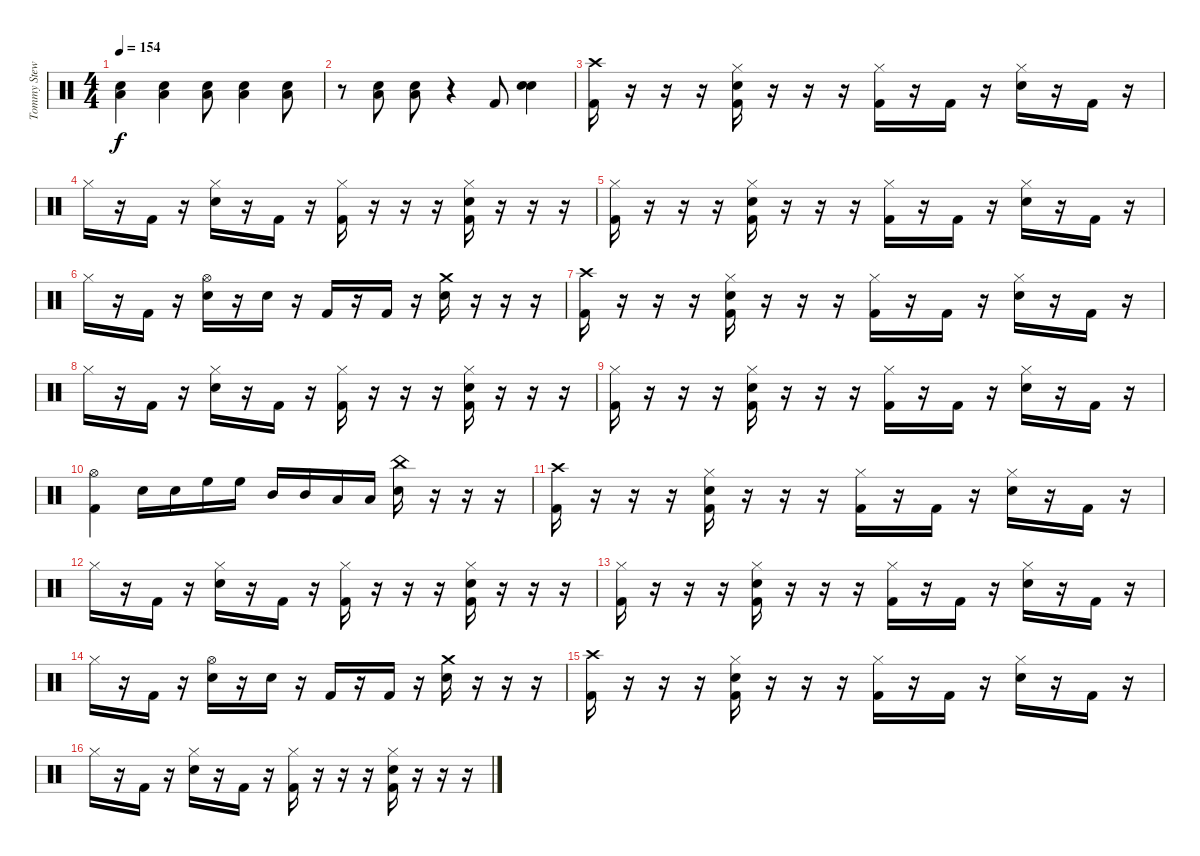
\track ("Tommy Stewart" "Tommy Stew") {instrument percussion}
\staff {score}
\articulation defaults
\ts (4 4)
\tempo 154
\clef neutral
\ks c
("Snare (hit) 2" "Low Tom (hit)").4{dy f} ("Snare (hit) 2" "Low Tom (hit)").4 ("Snare (hit) 2" "Low Tom (hit)").8 ("Snare (hit) 2" "Low Tom (hit)").4 ("Snare (hit) 2" "Low Tom (hit)").8 |
r.8 ("Snare (hit) 2" "Low Tom (hit)").8 ("Snare (hit) 2" "Low Tom (hit)").8 r.4 "Kick (hit) 2".8 ("Snare (hit) 2" "Snare (hit) 2").4 |
("Crash high (hit)" "Kick (hit) 2").16 r.16 r.16 r.16 ("Hi-Hat (closed)" "Snare (hit) 2" "Kick (hit) 2").16 r.16 r.16 r.16 ("Hi-Hat (closed)" "Kick (hit) 2").16 r.16 "Kick (hit) 2".16 r.16 ("Hi-Hat (closed)" "Snare (hit) 2").16 r.16 "Kick (hit) 2".16 r.16 |
"Hi-Hat (closed)".16 r.16 "Kick (hit) 2".16 r.16 ("Hi-Hat (closed)" "Snare (hit) 2").16 r.16 "Kick (hit) 2".16 r.16 ("Hi-Hat (closed)" "Kick (hit) 2").16 r.16 r.16 r.16 ("Hi-Hat (closed)" "Snare (hit) 2" "Kick (hit) 2").16 r.16 r.16 r.16 |
("Hi-Hat (closed)" "Kick (hit) 2").16 r.16 r.16 r.16 ("Hi-Hat (closed)" "Snare (hit) 2" "Kick (hit) 2").16 r.16 r.16 r.16 ("Hi-Hat (closed)" "Kick (hit) 2").16 r.16 "Kick (hit) 2".16 r.16 ("Hi-Hat (closed)" "Snare (hit) 2").16 r.16 "Kick (hit) 2".16 r.16 |
"Hi-Hat (closed)".16 r.16 "Kick (hit) 2".16 r.16 ("Hi-Hat (open)" "Snare (hit) 2").16 r.16 "Snare (hit) 2".16 r.16 "Kick (hit) 2".16 r.16 "Kick (hit) 2".16 r.16 ("Crash medium (hit)" "Snare (hit) 2").16 r.16 r.16 r.16 |
("Crash high (hit)" "Kick (hit) 2").16 r.16 r.16 r.16 ("Hi-Hat (closed)" "Snare (hit) 2" "Kick (hit) 2").16 r.16 r.16 r.16 ("Hi-Hat (closed)" "Kick (hit) 2").16 r.16 "Kick (hit) 2".16 r.16 ("Hi-Hat (closed)" "Snare (hit) 2").16 r.16 "Kick (hit) 2".16 r.16 |
"Hi-Hat (closed)".16 r.16 "Kick (hit) 2".16 r.16 ("Hi-Hat (closed)" "Snare (hit) 2").16 r.16 "Kick (hit) 2".16 r.16 ("Hi-Hat (closed)" "Kick (hit) 2").16 r.16 r.16 r.16 ("Hi-Hat (closed)" "Snare (hit) 2" "Kick (hit) 2").16 r.16 r.16 r.16 |
("Hi-Hat (closed)" "Kick (hit) 2").16 r.16 r.16 r.16 ("Hi-Hat (closed)" "Snare (hit) 2" "Kick (hit) 2").16 r.16 r.16 r.16 ("Hi-Hat (closed)" "Kick (hit) 2").16 r.16 "Kick (hit) 2".16 r.16 ("Hi-Hat (closed)" "Snare (hit) 2").16 r.16 "Kick (hit) 2".16 r.16 |
("Hi-Hat (open)" "Kick (hit) 2").4 "Snare (hit) 2".16 "Snare (hit) 2".16 "High Floor Tom (hit)".16 "High Floor Tom (hit)".16 "Mid Tom (hit)".16 "Mid Tom (hit)".16 "Low Tom (hit)".16 "Low Tom (hit)".16 ("China (hit)" "Snare (hit) 2").16 r.16 r.16 r.16 |
("Crash high (hit)" "Kick (hit) 2").16 r.16 r.16 r.16 ("Hi-Hat (closed)" "Snare (hit) 2" "Kick (hit) 2").16 r.16 r.16 r.16 ("Hi-Hat (closed)" "Kick (hit) 2").16 r.16 "Kick (hit) 2".16 r.16 ("Hi-Hat (closed)" "Snare (hit) 2").16 r.16 "Kick (hit) 2".16 r.16 |
"Hi-Hat (closed)".16 r.16 "Kick (hit) 2".16 r.16 ("Hi-Hat (closed)" "Snare (hit) 2").16 r.16 "Kick (hit) 2".16 r.16 ("Hi-Hat (closed)" "Kick (hit) 2").16 r.16 r.16 r.16 ("Hi-Hat (closed)" "Snare (hit) 2" "Kick (hit) 2").16 r.16 r.16 r.16 |
("Hi-Hat (closed)" "Kick (hit) 2").16 r.16 r.16 r.16 ("Hi-Hat (closed)" "Snare (hit) 2" "Kick (hit) 2").16 r.16 r.16 r.16 ("Hi-Hat (closed)" "Kick (hit) 2").16 r.16 "Kick (hit) 2".16 r.16 ("Hi-Hat (closed)" "Snare (hit) 2").16 r.16 "Kick (hit) 2".16 r.16 |
"Hi-Hat (closed)".16 r.16 "Kick (hit) 2".16 r.16 ("Hi-Hat (open)" "Snare (hit) 2").16 r.16 "Snare (hit) 2".16 r.16 "Kick (hit) 2".16 r.16 "Kick (hit) 2".16 r.16 ("Crash medium (hit)" "Snare (hit) 2").16 r.16 r.16 r.16 |
("Crash high (hit)" "Kick (hit) 2").16 r.16 r.16 r.16 ("Hi-Hat (closed)" "Snare (hit) 2" "Kick (hit) 2").16 r.16 r.16 r.16 ("Hi-Hat (closed)" "Kick (hit) 2").16 r.16 "Kick (hit) 2".16 r.16 ("Hi-Hat (closed)" "Snare (hit) 2").16 r.16 "Kick (hit) 2".16 r.16 |
"Hi-Hat (closed)".16 r.16 "Kick (hit) 2".16 r.16 ("Hi-Hat (closed)" "Snare (hit) 2").16 r.16 "Kick (hit) 2".16 r.16 ("Hi-Hat (closed)" "Kick (hit) 2").16 r.16 r.16 r.16 ("Hi-Hat (closed)" "Snare (hit) 2" "Kick (hit) 2").16 r.16 r.16 r.16
